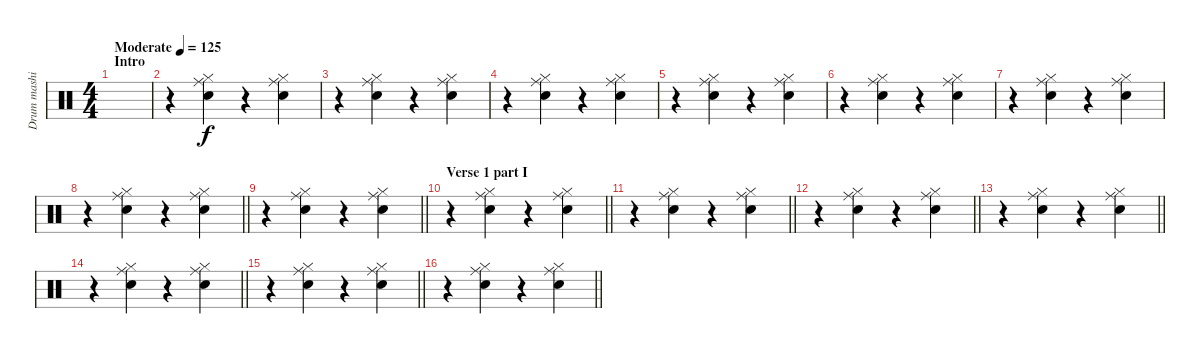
\track ("Drum mashine" "Drum mashi") {instrument percussion}
\staff
\articulation defaults
\ts (4 4)
\section ("" "Intro")
\tempo (125 "Moderate")
\clef neutral
\ks c
|
r.4 ("Ride (middle)" "Electric Snare (hit)" "Hi-Hat (closed)").4 r.4 ("Ride (middle)" "Electric Snare (hit)" "Hi-Hat (closed)").4 |
r.4 ("Ride (middle)" "Electric Snare (hit)" "Hi-Hat (closed)").4 r.4 ("Ride (middle)" "Electric Snare (hit)" "Hi-Hat (closed)").4 |
r.4 ("Ride (middle)" "Electric Snare (hit)" "Hi-Hat (closed)").4 r.4 ("Ride (middle)" "Electric Snare (hit)" "Hi-Hat (closed)").4 |
r.4 ("Ride (middle)" "Electric Snare (hit)" "Hi-Hat (closed)").4 r.4 ("Ride (middle)" "Electric Snare (hit)" "Hi-Hat (closed)").4 |
r.4 ("Ride (middle)" "Electric Snare (hit)" "Hi-Hat (closed)").4 r.4 ("Ride (middle)" "Electric Snare (hit)" "Hi-Hat (closed)").4 |
r.4 ("Ride (middle)" "Electric Snare (hit)" "Hi-Hat (closed)").4 r.4 ("Ride (middle)" "Electric Snare (hit)" "Hi-Hat (closed)").4 |
\barLineRight lightlight
r.4 ("Ride (middle)" "Electric Snare (hit)" "Hi-Hat (closed)").4 r.4 ("Ride (middle)" "Electric Snare (hit)" "Hi-Hat (closed)").4 |
\barLineRight lightlight
r.4 ("Ride (middle)" "Electric Snare (hit)" "Hi-Hat (closed)").4 r.4 ("Ride (middle)" "Electric Snare (hit)" "Hi-Hat (closed)").4 |
\section ("" "Verse 1 part I")
\barLineRight lightlight
r.4 ("Ride (middle)" "Electric Snare (hit)" "Hi-Hat (closed)").4 r.4 ("Ride (middle)" "Electric Snare (hit)" "Hi-Hat (closed)").4 |
\barLineRight lightlight
r.4 ("Ride (middle)" "Electric Snare (hit)" "Hi-Hat (closed)").4 r.4 ("Ride (middle)" "Electric Snare (hit)" "Hi-Hat (closed)").4 |
\barLineRight lightlight
r.4 ("Ride (middle)" "Electric Snare (hit)" "Hi-Hat (closed)").4 r.4 ("Ride (middle)" "Electric Snare (hit)" "Hi-Hat (closed)").4 |
\barLineRight lightlight
r.4 ("Ride (middle)" "Electric Snare (hit)" "Hi-Hat (closed)").4 r.4 ("Ride (middle)" "Electric Snare (hit)" "Hi-Hat (closed)").4 |
\barLineRight lightlight
r.4 ("Ride (middle)" "Electric Snare (hit)" "Hi-Hat (closed)").4 r.4 ("Ride (middle)" "Electric Snare (hit)" "Hi-Hat (closed)").4 |
\barLineRight lightlight
r.4 ("Ride (middle)" "Electric Snare (hit)" "Hi-Hat (closed)").4 r.4 ("Ride (middle)" "Electric Snare (hit)" "Hi-Hat (closed)").4 |
\barLineRight lightlight
r.4 ("Ride (middle)" "Electric Snare (hit)" "Hi-Hat (closed)").4 r.4 ("Ride (middle)" "Electric Snare (hit)" "Hi-Hat (closed)").4
